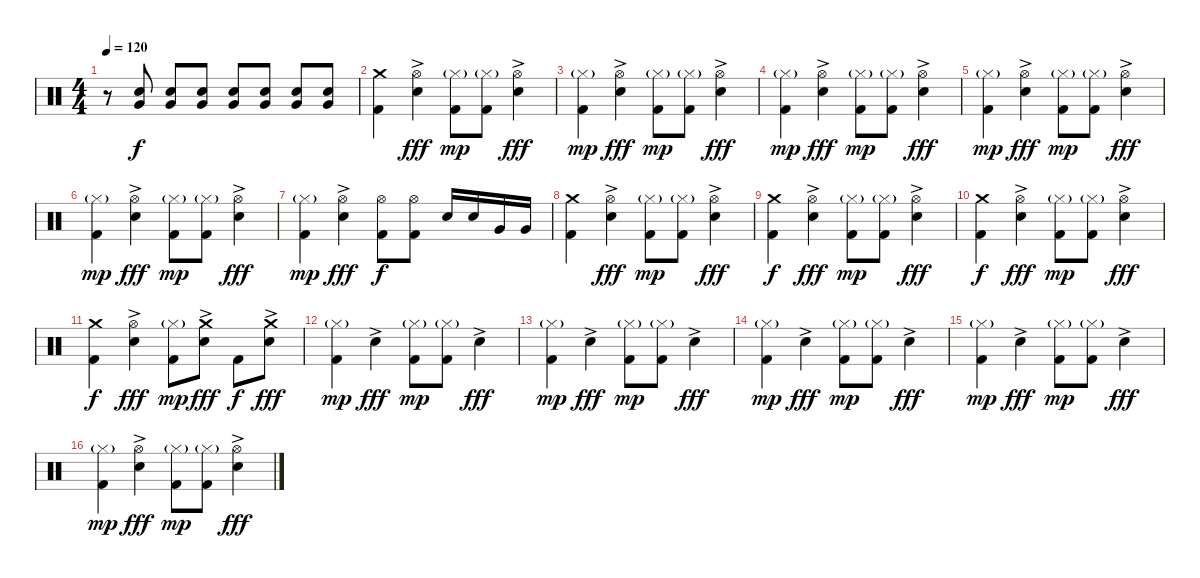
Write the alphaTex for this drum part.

\track "" {instrument percussion}
\staff {score}
\articulation defaults
\ts (4 4)
\tempo 120
\tempo 190
\tempo 120
\clef neutral
\ks c
r.8{dy f} ("Electric Snare (hit)" "Very Low Tom (hit)").8 ("Electric Snare (hit)" "Very Low Tom (hit)").8 ("Electric Snare (hit)" "Very Low Tom (hit)").8 ("Electric Snare (hit)" "Very Low Tom (hit)").8 ("Electric Snare (hit)" "Very Low Tom (hit)").8 ("Electric Snare (hit)" "Very Low Tom (hit)").8 ("Electric Snare (hit)" "Very Low Tom (hit)").8 |
("Kick (hit) 2" "Crash medium (hit)").4 ("Electric Snare (hit)"{ac} "Hi-Hat (open)").4{dy fff} ("Kick (hit) 2" "Hi-Hat (closed)"{g}).8{dy mp} ("Kick (hit) 2" "Hi-Hat (closed)"{g}).8 ("Electric Snare (hit)"{ac} "Hi-Hat (open)").4{dy fff} |
("Kick (hit) 2" "Hi-Hat (closed)"{g}).4{dy mp} ("Electric Snare (hit)"{ac} "Hi-Hat (open)").4{dy fff} ("Kick (hit) 2" "Hi-Hat (closed)"{g}).8{dy mp} ("Kick (hit) 2" "Hi-Hat (closed)"{g}).8 ("Electric Snare (hit)"{ac} "Hi-Hat (open)").4{dy fff} |
("Kick (hit) 2" "Hi-Hat (closed)"{g}).4{dy mp} ("Electric Snare (hit)"{ac} "Hi-Hat (open)").4{dy fff} ("Kick (hit) 2" "Hi-Hat (closed)"{g}).8{dy mp} ("Kick (hit) 2" "Hi-Hat (closed)"{g}).8 ("Electric Snare (hit)"{ac} "Hi-Hat (open)").4{dy fff} |
("Kick (hit) 2" "Hi-Hat (closed)"{g}).4{dy mp} ("Electric Snare (hit)"{ac} "Hi-Hat (open)").4{dy fff} ("Kick (hit) 2" "Hi-Hat (closed)"{g}).8{dy mp} ("Kick (hit) 2" "Hi-Hat (closed)"{g}).8 ("Electric Snare (hit)"{ac} "Hi-Hat (open)").4{dy fff} |
("Kick (hit) 2" "Hi-Hat (closed)"{g}).4{dy mp} ("Electric Snare (hit)"{ac} "Hi-Hat (open)").4{dy fff} ("Kick (hit) 2" "Hi-Hat (closed)"{g}).8{dy mp} ("Kick (hit) 2" "Hi-Hat (closed)"{g}).8 ("Electric Snare (hit)"{ac} "Hi-Hat (open)").4{dy fff} |
("Kick (hit) 2" "Hi-Hat (closed)"{g}).4{dy mp} ("Electric Snare (hit)"{ac} "Hi-Hat (open)").4{dy fff} ("Kick (hit) 2" "Hi-Hat (open)").8{dy f} ("Kick (hit) 2" "Hi-Hat (open)").8 "Snare (hit) 2".16 "Snare (hit) 2".16 "Very Low Tom (hit)".16 "Very Low Tom (hit)".16 |
("Kick (hit) 2" "Crash medium (hit)").4 ("Electric Snare (hit)"{ac} "Hi-Hat (open)").4{dy fff} ("Kick (hit) 2" "Hi-Hat (closed)"{g}).8{dy mp} ("Kick (hit) 2" "Hi-Hat (closed)"{g}).8 ("Electric Snare (hit)"{ac} "Hi-Hat (open)").4{dy fff} |
("Kick (hit) 2" "Crash medium (hit)").4{dy f} ("Electric Snare (hit)"{ac} "Hi-Hat (open)").4{dy fff} ("Kick (hit) 2" "Hi-Hat (closed)"{g}).8{dy mp} ("Kick (hit) 2" "Hi-Hat (closed)"{g}).8 ("Electric Snare (hit)"{ac} "Hi-Hat (open)").4{dy fff} |
("Kick (hit) 2" "Crash medium (hit)").4{dy f} ("Electric Snare (hit)"{ac} "Hi-Hat (open)").4{dy fff} ("Kick (hit) 2" "Hi-Hat (closed)"{g}).8{dy mp} ("Kick (hit) 2" "Hi-Hat (closed)"{g}).8 ("Electric Snare (hit)"{ac} "Hi-Hat (open)").4{dy fff} |
("Kick (hit) 2" "Crash medium (hit)").4{dy f} ("Electric Snare (hit)"{ac} "Hi-Hat (open)").4{dy fff} ("Kick (hit) 2" "Hi-Hat (closed)"{g}).8{dy mp} ("Electric Snare (hit)"{ac} "Crash medium (hit)").8{dy fff} "Kick (hit) 2".8{dy f} ("Electric Snare (hit)"{ac} "Crash medium (hit)").8{dy fff} |
("Kick (hit) 2" "Hi-Hat (closed)"{g}).4{dy mp} "Electric Snare (hit)"{ac}.4{dy fff} ("Kick (hit) 2" "Hi-Hat (closed)"{g}).8{dy mp} ("Kick (hit) 2" "Hi-Hat (closed)"{g}).8 "Electric Snare (hit)"{ac}.4{dy fff} |
("Kick (hit) 2" "Hi-Hat (closed)"{g}).4{dy mp} "Electric Snare (hit)"{ac}.4{dy fff} ("Kick (hit) 2" "Hi-Hat (closed)"{g}).8{dy mp} ("Kick (hit) 2" "Hi-Hat (closed)"{g}).8 "Electric Snare (hit)"{ac}.4{dy fff} |
("Kick (hit) 2" "Hi-Hat (closed)"{g}).4{dy mp} "Electric Snare (hit)"{ac}.4{dy fff} ("Kick (hit) 2" "Hi-Hat (closed)"{g}).8{dy mp} ("Kick (hit) 2" "Hi-Hat (closed)"{g}).8 "Electric Snare (hit)"{ac}.4{dy fff} |
("Kick (hit) 2" "Hi-Hat (closed)"{g}).4{dy mp} "Electric Snare (hit)"{ac}.4{dy fff} ("Kick (hit) 2" "Hi-Hat (closed)"{g}).8{dy mp} ("Kick (hit) 2" "Hi-Hat (closed)"{g}).8 "Electric Snare (hit)"{ac}.4{dy fff} |
("Kick (hit) 2" "Hi-Hat (closed)"{g}).4{dy mp} ("Electric Snare (hit)"{ac} "Hi-Hat (open)").4{dy fff} ("Kick (hit) 2" "Hi-Hat (closed)"{g}).8{dy mp} ("Kick (hit) 2" "Hi-Hat (closed)"{g}).8 ("Electric Snare (hit)"{ac} "Hi-Hat (open)").4{dy fff}
